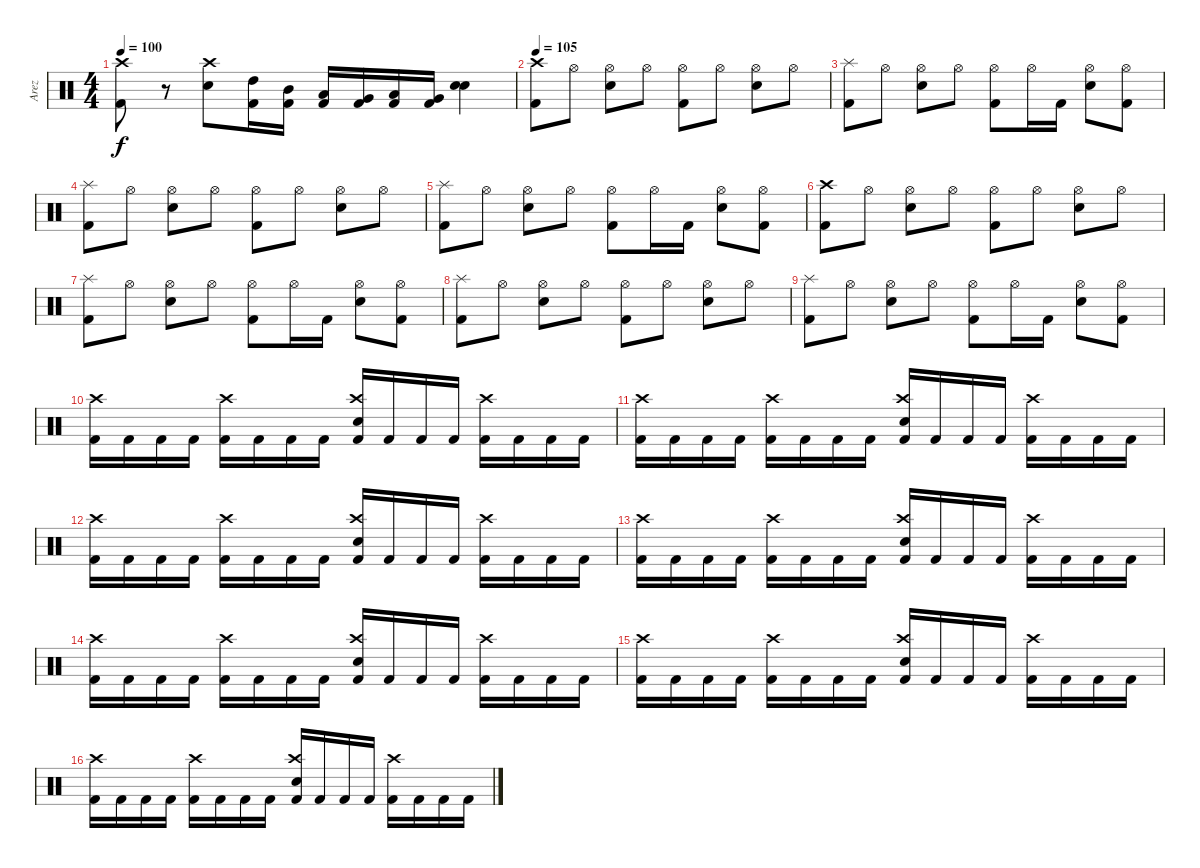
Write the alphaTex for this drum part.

\track ("Arez" "Arez") {instrument percussion}
\staff {score}
\articulation defaults
\ts (4 4)
\tempo 100
\clef neutral
\ks c
("Kick (hit) 2" "Crash high (hit)").8{dy f} r.8 ("Crash high (hit)" "Electric Snare (hit)").8 ("High Tom (hit)" "Kick (hit) 2").16 ("Mid Tom (hit)" "Kick (hit) 2").16 ("Low Tom (hit)" "Kick (hit) 2").16 ("Very Low Tom (hit)" "Kick (hit) 2").16 ("Low Floor Tom (hit)" "Kick (hit) 2").16 ("Very Low Tom (hit)" "Kick (hit) 2").16 ("Electric Snare (hit)" "Electric Snare (hit)").4 |
\tempo 105
("Crash high (hit)" "Kick (hit) 2").8 "Hi-Hat (open)".8 ("Hi-Hat (open)" "Electric Snare (hit)").8 "Hi-Hat (open)".8 ("Hi-Hat (open)" "Kick (hit) 2").8 "Hi-Hat (open)".8 ("Electric Snare (hit)" "Hi-Hat (open)").8 "Hi-Hat (open)".8 |
("Splash (hit)" "Kick (hit) 2").8 "Hi-Hat (open)".8 ("Hi-Hat (open)" "Electric Snare (hit)").8 "Hi-Hat (open)".8 ("Hi-Hat (open)" "Kick (hit) 2").8 "Hi-Hat (open)".16 "Kick (hit) 2".16 ("Electric Snare (hit)" "Hi-Hat (open)").8 ("Kick (hit) 2" "Hi-Hat (open)").8 |
("Splash (hit)" "Kick (hit) 2").8 "Hi-Hat (open)".8 ("Hi-Hat (open)" "Electric Snare (hit)").8 "Hi-Hat (open)".8 ("Hi-Hat (open)" "Kick (hit) 2").8 "Hi-Hat (open)".8 ("Electric Snare (hit)" "Hi-Hat (open)").8 "Hi-Hat (open)".8 |
("Splash (hit)" "Kick (hit) 2").8 "Hi-Hat (open)".8 ("Hi-Hat (open)" "Electric Snare (hit)").8 "Hi-Hat (open)".8 ("Hi-Hat (open)" "Kick (hit) 2").8 "Hi-Hat (open)".16 "Kick (hit) 2".16 ("Electric Snare (hit)" "Hi-Hat (open)").8 ("Kick (hit) 2" "Hi-Hat (open)").8 |
("Crash high (hit)" "Kick (hit) 2").8 "Hi-Hat (open)".8 ("Hi-Hat (open)" "Electric Snare (hit)").8 "Hi-Hat (open)".8 ("Hi-Hat (open)" "Kick (hit) 2").8 "Hi-Hat (open)".8 ("Electric Snare (hit)" "Hi-Hat (open)").8 "Hi-Hat (open)".8 |
("Splash (hit)" "Kick (hit) 2").8 "Hi-Hat (open)".8 ("Hi-Hat (open)" "Electric Snare (hit)").8 "Hi-Hat (open)".8 ("Hi-Hat (open)" "Kick (hit) 2").8 "Hi-Hat (open)".16 "Kick (hit) 2".16 ("Electric Snare (hit)" "Hi-Hat (open)").8 ("Kick (hit) 2" "Hi-Hat (open)").8 |
("Splash (hit)" "Kick (hit) 2").8 "Hi-Hat (open)".8 ("Hi-Hat (open)" "Electric Snare (hit)").8 "Hi-Hat (open)".8 ("Hi-Hat (open)" "Kick (hit) 2").8 "Hi-Hat (open)".8 ("Electric Snare (hit)" "Hi-Hat (open)").8 "Hi-Hat (open)".8 |
("Splash (hit)" "Kick (hit) 2").8 "Hi-Hat (open)".8 ("Hi-Hat (open)" "Electric Snare (hit)").8 "Hi-Hat (open)".8 ("Hi-Hat (open)" "Kick (hit) 2").8 "Hi-Hat (open)".16 "Kick (hit) 2".16 ("Electric Snare (hit)" "Hi-Hat (open)").8 ("Kick (hit) 2" "Hi-Hat (open)").8 |
("Crash high (hit)" "Kick (hit) 2").16 "Kick (hit) 2".16 "Kick (hit) 2".16 "Kick (hit) 2".16 ("Kick (hit) 2" "Crash high (hit)").16 "Kick (hit) 2".16 "Kick (hit) 2".16 "Kick (hit) 2".16 ("Crash high (hit)" "Kick (hit) 2" "Electric Snare (hit)").16 "Kick (hit) 2".16 "Kick (hit) 2".16 "Kick (hit) 2".16 ("Kick (hit) 2" "Crash high (hit)").16 "Kick (hit) 2".16 "Kick (hit) 2".16 "Kick (hit) 2".16 |
("Crash high (hit)" "Kick (hit) 2").16 "Kick (hit) 2".16 "Kick (hit) 2".16 "Kick (hit) 2".16 ("Kick (hit) 2" "Crash high (hit)").16 "Kick (hit) 2".16 "Kick (hit) 2".16 "Kick (hit) 2".16 ("Crash high (hit)" "Kick (hit) 2" "Electric Snare (hit)").16 "Kick (hit) 2".16 "Kick (hit) 2".16 "Kick (hit) 2".16 ("Kick (hit) 2" "Crash high (hit)").16 "Kick (hit) 2".16 "Kick (hit) 2".16 "Kick (hit) 2".16 |
("Crash high (hit)" "Kick (hit) 2").16 "Kick (hit) 2".16 "Kick (hit) 2".16 "Kick (hit) 2".16 ("Kick (hit) 2" "Crash high (hit)").16 "Kick (hit) 2".16 "Kick (hit) 2".16 "Kick (hit) 2".16 ("Crash high (hit)" "Kick (hit) 2" "Electric Snare (hit)").16 "Kick (hit) 2".16 "Kick (hit) 2".16 "Kick (hit) 2".16 ("Kick (hit) 2" "Crash high (hit)").16 "Kick (hit) 2".16 "Kick (hit) 2".16 "Kick (hit) 2".16 |
("Crash high (hit)" "Kick (hit) 2").16 "Kick (hit) 2".16 "Kick (hit) 2".16 "Kick (hit) 2".16 ("Kick (hit) 2" "Crash high (hit)").16 "Kick (hit) 2".16 "Kick (hit) 2".16 "Kick (hit) 2".16 ("Crash high (hit)" "Kick (hit) 2" "Electric Snare (hit)").16 "Kick (hit) 2".16 "Kick (hit) 2".16 "Kick (hit) 2".16 ("Kick (hit) 2" "Crash high (hit)").16 "Kick (hit) 2".16 "Kick (hit) 2".16 "Kick (hit) 2".16 |
("Crash high (hit)" "Kick (hit) 2").16 "Kick (hit) 2".16 "Kick (hit) 2".16 "Kick (hit) 2".16 ("Kick (hit) 2" "Crash high (hit)").16 "Kick (hit) 2".16 "Kick (hit) 2".16 "Kick (hit) 2".16 ("Crash high (hit)" "Kick (hit) 2" "Electric Snare (hit)").16 "Kick (hit) 2".16 "Kick (hit) 2".16 "Kick (hit) 2".16 ("Kick (hit) 2" "Crash high (hit)").16 "Kick (hit) 2".16 "Kick (hit) 2".16 "Kick (hit) 2".16 |
("Crash high (hit)" "Kick (hit) 2").16 "Kick (hit) 2".16 "Kick (hit) 2".16 "Kick (hit) 2".16 ("Kick (hit) 2" "Crash high (hit)").16 "Kick (hit) 2".16 "Kick (hit) 2".16 "Kick (hit) 2".16 ("Crash high (hit)" "Kick (hit) 2" "Electric Snare (hit)").16 "Kick (hit) 2".16 "Kick (hit) 2".16 "Kick (hit) 2".16 ("Kick (hit) 2" "Crash high (hit)").16 "Kick (hit) 2".16 "Kick (hit) 2".16 "Kick (hit) 2".16 |
("Crash high (hit)" "Kick (hit) 2").16 "Kick (hit) 2".16 "Kick (hit) 2".16 "Kick (hit) 2".16 ("Kick (hit) 2" "Crash high (hit)").16 "Kick (hit) 2".16 "Kick (hit) 2".16 "Kick (hit) 2".16 ("Crash high (hit)" "Kick (hit) 2" "Electric Snare (hit)").16 "Kick (hit) 2".16 "Kick (hit) 2".16 "Kick (hit) 2".16 ("Kick (hit) 2" "Crash high (hit)").16 "Kick (hit) 2".16 "Kick (hit) 2".16 "Kick (hit) 2".16
